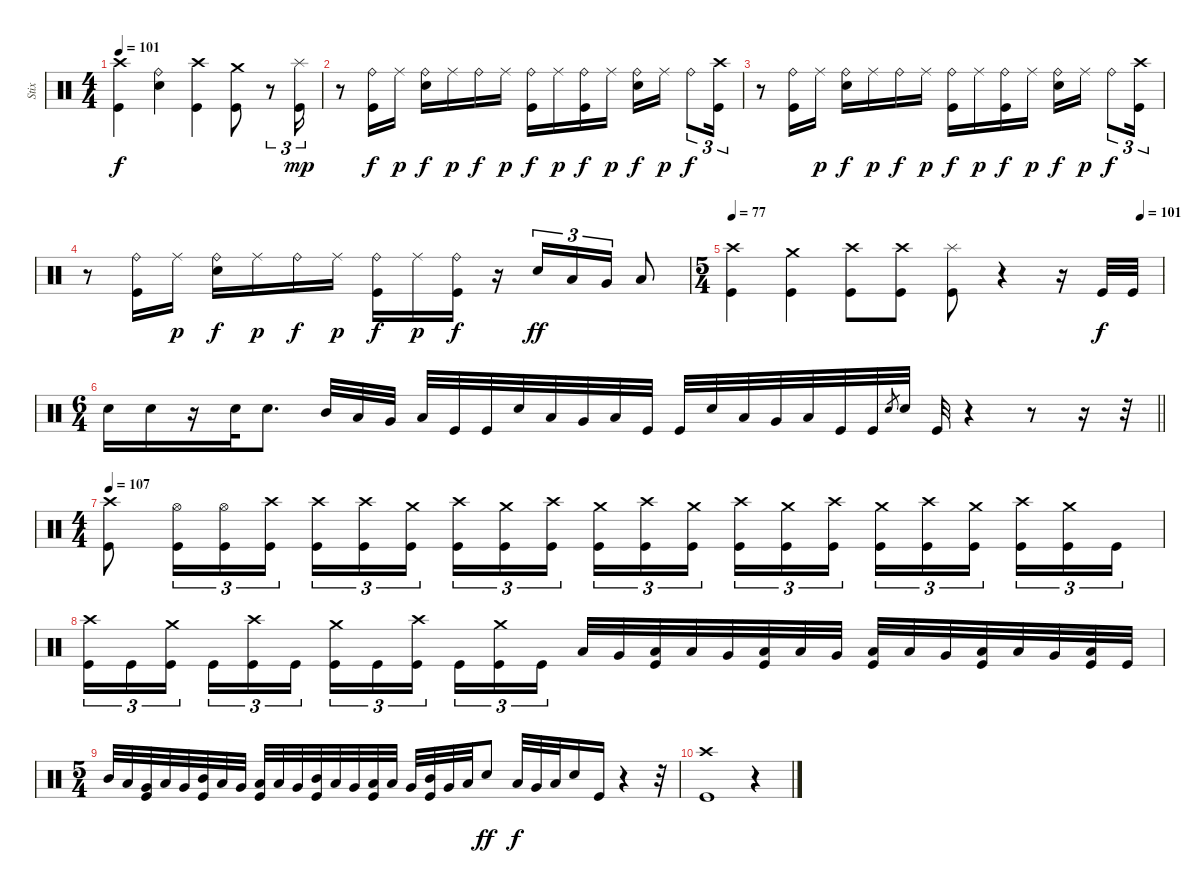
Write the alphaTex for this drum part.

\track ("Stix" "Stix") {instrument percussion}
\staff {score}
\articulation defaults
\ts (4 4)
\tempo 101
\clef neutral
\ks c
("Crash high (hit)" "Kick (hit)").4{dy f} ("Ride (bell)" "Electric Snare (hit)").4 ("Crash high (hit)" "Kick (hit)").4 ("Crash medium (hit)" "Kick (hit)").8 r.8{tu (3 2)} ("Splash (hit)" "Kick (hit)").16{tu (3 2) dy mp} |
r.8 ("Ride (bell)" "Kick (hit)").16{dy f} "Ride (middle)".16{dy p} ("Ride (bell)" "Electric Snare (hit)").16{dy f} "Ride (middle)".16{dy p} "Ride (bell)".16{dy f} "Ride (middle)".16{dy p} ("Ride (bell)" "Kick (hit)").16{dy f} "Ride (middle)".16{dy p} ("Ride (bell)" "Kick (hit)").16{dy f} "Ride (middle)".16{dy p} ("Ride (bell)" "Electric Snare (hit)").16{dy f} "Ride (middle)".16{dy p} "Ride (bell)".8{tu (3 2) dy f} ("Crash high (hit)" "Kick (hit)").16{tu (3 2)} |
r.8 ("Ride (bell)" "Kick (hit)").16 "Ride (middle)".16{dy p} ("Ride (bell)" "Electric Snare (hit)").16{dy f} "Ride (middle)".16{dy p} "Ride (bell)".16{dy f} "Ride (middle)".16{dy p} ("Ride (bell)" "Kick (hit)").16{dy f} "Ride (middle)".16{dy p} ("Ride (bell)" "Kick (hit)").16{dy f} "Ride (middle)".16{dy p} ("Ride (bell)" "Electric Snare (hit)").16{dy f} "Ride (middle)".16{dy p} "Ride (bell)".8{tu (3 2) dy f} ("Crash high (hit)" "Kick (hit)").16{tu (3 2)} |
r.8 ("Ride (bell)" "Kick (hit)").16 "Ride (middle)".16{dy p} ("Ride (bell)" "Electric Snare (hit)").16{dy f} "Ride (middle)".16{dy p} "Ride (bell)".16{dy f} "Ride (middle)".16{dy p} ("Ride (bell)" "Kick (hit)").16{dy f} "Ride (middle)".16{dy p} ("Ride (bell)" "Kick (hit)").16{dy f} r.16 "Electric Snare (hit)".16{tu (3 2) dy ff} "Low Tom (hit)".16{tu (3 2)} "Very Low Tom (hit)".16{tu (3 2)} "Low Floor Tom (hit)".8 |
\ts (5 4)
\tempo 77
\tempo (101 0.95)
("Crash high (hit)" "Kick (hit)").4 ("Crash medium (hit)" "Kick (hit)").4 ("Crash high (hit)" "Kick (hit)").8 ("Crash high (hit)" "Kick (hit)").8 ("Splash (hit)" "Kick (hit)").8 r.4 r.16 "Kick (hit)".32{dy f} "Kick (hit)".32 |
\ts (6 4)
\barLineRight lightlight "Electric Snare (hit)".16 "Electric Snare (hit)".16
r.16 "Electric Snare (hit)".32 "Electric Snare (hit)".8{d} "Mid Tom (hit)".32 "Low Tom (hit)".32 "Very Low Tom (hit)".32 "Low Floor Tom (hit)".32 "Kick (hit)".32 "Kick (hit)".32 "Electric Snare (hit)".32 "Low Tom (hit)".32 "Very Low Tom (hit)".32 "Low Floor Tom (hit)".32 "Kick (hit)".32 "Kick (hit)".32 "Electric Snare (hit)".32 "Low Tom (hit)".32 "Very Low Tom (hit)".32 "Low Floor Tom (hit)".32 "Kick (hit)".32 "Kick (hit)".32 "Electric Snare (hit)".8{gr} "Electric Snare (hit)".32 "Kick (hit)".32 r.4 r.8 r.16 r.32 |
\ts (4 4)
\section ("" "")
\tempo 107
("Crash high (hit)" "Kick (hit)").8 ("Hi-Hat (open)" "Kick (hit)").16{tu (3 2)} ("Hi-Hat (open)" "Kick (hit)").16{tu (3 2)} ("Crash high (hit)" "Kick (hit)").16{tu (3 2)} ("Crash high (hit)" "Kick (hit)").16{tu (3 2)} ("Crash high (hit)" "Kick (hit)").16{tu (3 2)} ("Crash medium (hit)" "Kick (hit)").16{tu (3 2) beam splitsecondary} ("Crash high (hit)" "Kick (hit)").16{tu (3 2)} ("Crash medium (hit)" "Kick (hit)").16{tu (3 2)} ("Crash high (hit)" "Kick (hit)").16{tu (3 2)} ("Crash medium (hit)" "Kick (hit)").16{tu (3 2)} ("Crash high (hit)" "Kick (hit)").16{tu (3 2)} ("Crash medium (hit)" "Kick (hit)").16{tu (3 2) beam splitsecondary} ("Crash high (hit)" "Kick (hit)").16{tu (3 2)} ("Crash medium (hit)" "Kick (hit)").16{tu (3 2)} ("Crash high (hit)" "Kick (hit)").16{tu (3 2)} ("Crash medium (hit)" "Kick (hit)").16{tu (3 2)} ("Crash high (hit)" "Kick (hit)").16{tu (3 2)} ("Crash medium (hit)" "Kick (hit)").16{tu (3 2) beam splitsecondary} ("Crash high (hit)" "Kick (hit)").16{tu (3 2)} ("Crash medium (hit)" "Kick (hit)").16{tu (3 2)} "Kick (hit)".16{tu (3 2)} |
("Crash high (hit)" "Kick (hit)").16{tu (3 2)} "Kick (hit)".16{tu (3 2)} ("Crash medium (hit)" "Kick (hit)").16{tu (3 2) beam splitsecondary} "Kick (hit)".16{tu (3 2)} ("Crash high (hit)" "Kick (hit)").16{tu (3 2)} "Kick (hit)".16{tu (3 2)} ("Crash medium (hit)" "Kick (hit)").16{tu (3 2)} "Kick (hit)".16{tu (3 2)} ("Crash high (hit)" "Kick (hit)").16{tu (3 2) beam splitsecondary} "Kick (hit)".16{tu (3 2)} ("Crash medium (hit)" "Kick (hit)").16{tu (3 2)} "Kick (hit)".16{tu (3 2)} "Low Tom (hit)".32 "Very Low Tom (hit)".32 ("Kick (hit)" "Low Floor Tom (hit)").32 "Low Tom (hit)".32 "Very Low Tom (hit)".32 ("Kick (hit)" "Low Floor Tom (hit)").32 "Low Tom (hit)".32 "Very Low Tom (hit)".32 ("Kick (hit)" "Low Floor Tom (hit)").32 "Low Tom (hit)".32 "Very Low Tom (hit)".32 ("Kick (hit)" "Low Floor Tom (hit)").32 "Low Tom (hit)".32 "Very Low Tom (hit)".32 ("Kick (hit)" "Low Floor Tom (hit)").32 "Kick (hit)".32 |
\ts (5 4)
"Mid Tom (hit)".32 "Low Tom (hit)".32 ("Kick (hit)" "Very Low Tom (hit)").32 "Low Tom (hit)".32 "Very Low Tom (hit)".32 ("Kick (hit)" "Mid Tom (hit)").32 "Low Tom (hit)".32 "Very Low Tom (hit)".32 ("Kick (hit)" "Low Floor Tom (hit)").32 "Low Tom (hit)".32 "Very Low Tom (hit)".32 ("Kick (hit)" "Mid Tom (hit)").32 "Low Tom (hit)".32 "Very Low Tom (hit)".32 ("Kick (hit)" "Low Floor Tom (hit)").32 "Low Tom (hit)".32 "Very Low Tom (hit)".32 ("Kick (hit)" "Mid Tom (hit)").32 "Very Low Tom (hit)".32 "Low Floor Tom (hit)".32 "Electric Snare (hit)".8{dy ff} "Low Tom (hit)".32{dy f} "Very Low Tom (hit)".32 "Low Floor Tom (hit)".32 "Electric Snare (hit)".16 "Kick (hit)".16 r.4 r.32 |
("Crash high (hit)" "Kick (hit)").1 r.4
